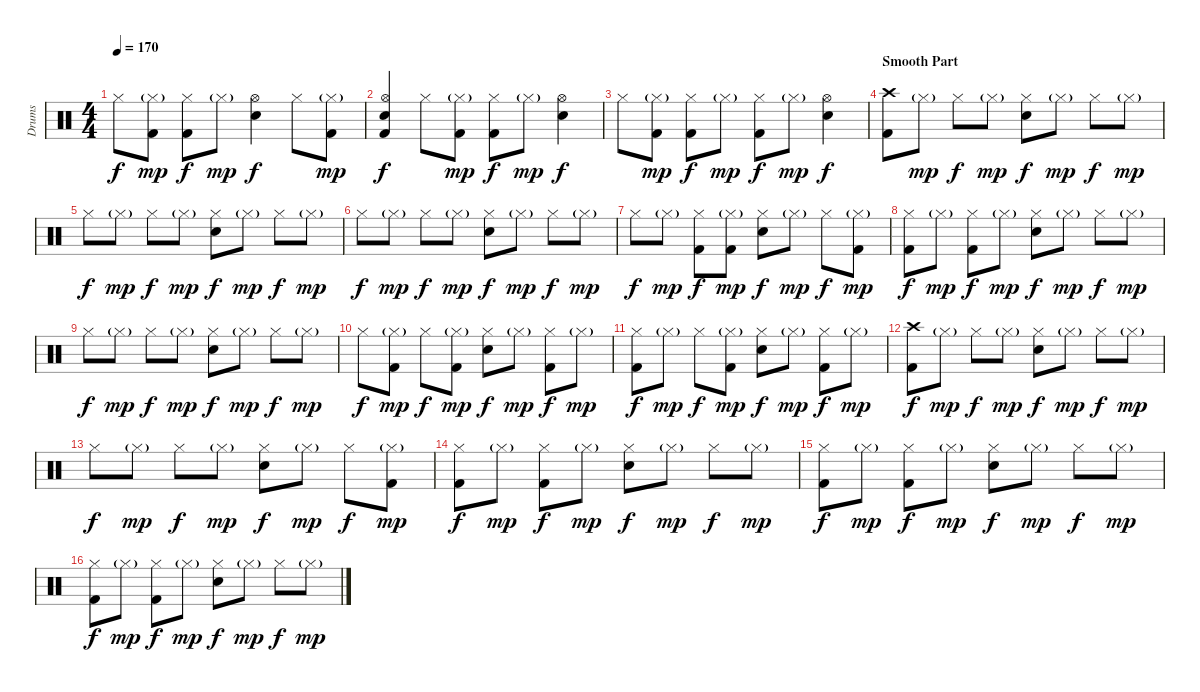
\track ("Drums" "Drums") {instrument percussion}
\staff {score}
\articulation defaults
\ts (4 4)
\tempo 170
\clef neutral
\ks c "Hi-Hat (closed)".8{dy f}
("Hi-Hat (closed)"{g} "Kick (hit) 2").8{dy mp} ("Hi-Hat (closed)" "Kick (hit) 2").8{dy f} "Hi-Hat (closed)"{g}.8{dy mp} ("Hi-Hat (open)" "Snare (hit) 2").4{dy f} "Hi-Hat (closed)".8 ("Hi-Hat (closed)"{g} "Kick (hit) 2").8{dy mp} |
("Hi-Hat (open)" "Snare (hit) 2" "Kick (hit) 2").4{dy f} "Hi-Hat (closed)".8 ("Hi-Hat (closed)"{g} "Kick (hit) 2").8{dy mp} ("Hi-Hat (closed)" "Kick (hit) 2").8{dy f} "Hi-Hat (closed)"{g}.8{dy mp} ("Hi-Hat (open)" "Snare (hit) 2").4{dy f} |
"Hi-Hat (closed)".8 ("Hi-Hat (closed)"{g} "Kick (hit) 2").8{dy mp} ("Hi-Hat (closed)" "Kick (hit) 2").8{dy f} "Hi-Hat (closed)"{g}.8{dy mp} ("Hi-Hat (closed)" "Kick (hit) 2").8{dy f} "Hi-Hat (closed)"{g}.8{dy mp} ("Hi-Hat (open)" "Snare (hit) 2").4{dy f} |
\section ("" "Smooth Part")
("Crash high (hit)" "Kick (hit) 2").8 "Hi-Hat (closed)"{g}.8{dy mp} "Hi-Hat (closed)".8{dy f} "Hi-Hat (closed)"{g}.8{dy mp} ("Hi-Hat (closed)" "Snare (hit) 2").8{dy f} "Hi-Hat (closed)"{g}.8{dy mp} "Hi-Hat (closed)".8{dy f} "Hi-Hat (closed)"{g}.8{dy mp} |
"Hi-Hat (closed)".8{dy f} "Hi-Hat (closed)"{g}.8{dy mp} "Hi-Hat (closed)".8{dy f} "Hi-Hat (closed)"{g}.8{dy mp} ("Hi-Hat (closed)" "Snare (hit) 2").8{dy f} "Hi-Hat (closed)"{g}.8{dy mp} "Hi-Hat (closed)".8{dy f} "Hi-Hat (closed)"{g}.8{dy mp} |
"Hi-Hat (closed)".8{dy f} "Hi-Hat (closed)"{g}.8{dy mp} "Hi-Hat (closed)".8{dy f} "Hi-Hat (closed)"{g}.8{dy mp} ("Hi-Hat (closed)" "Snare (hit) 2").8{dy f} "Hi-Hat (closed)"{g}.8{dy mp} "Hi-Hat (closed)".8{dy f} "Hi-Hat (closed)"{g}.8{dy mp} |
"Hi-Hat (closed)".8{dy f} "Hi-Hat (closed)"{g}.8{dy mp} ("Hi-Hat (closed)" "Kick (hit) 2").8{dy f} ("Hi-Hat (closed)"{g} "Kick (hit) 2").8{dy mp} ("Hi-Hat (closed)" "Snare (hit) 2").8{dy f} "Hi-Hat (closed)"{g}.8{dy mp} "Hi-Hat (closed)".8{dy f} ("Hi-Hat (closed)"{g} "Kick (hit) 2").8{dy mp} |
("Hi-Hat (closed)" "Kick (hit) 2").8{dy f} "Hi-Hat (closed)"{g}.8{dy mp} ("Hi-Hat (closed)" "Kick (hit) 2").8{dy f} "Hi-Hat (closed)"{g}.8{dy mp} ("Hi-Hat (closed)" "Snare (hit) 2").8{dy f} "Hi-Hat (closed)"{g}.8{dy mp} "Hi-Hat (closed)".8{dy f} "Hi-Hat (closed)"{g}.8{dy mp} |
"Hi-Hat (closed)".8{dy f} "Hi-Hat (closed)"{g}.8{dy mp} "Hi-Hat (closed)".8{dy f} "Hi-Hat (closed)"{g}.8{dy mp} ("Hi-Hat (closed)" "Snare (hit) 2").8{dy f} "Hi-Hat (closed)"{g}.8{dy mp} "Hi-Hat (closed)".8{dy f} "Hi-Hat (closed)"{g}.8{dy mp} |
"Hi-Hat (closed)".8{dy f} ("Hi-Hat (closed)"{g} "Kick (hit) 2").8{dy mp} "Hi-Hat (closed)".8{dy f} ("Hi-Hat (closed)"{g} "Kick (hit) 2").8{dy mp} ("Hi-Hat (closed)" "Snare (hit) 2").8{dy f} "Hi-Hat (closed)"{g}.8{dy mp} ("Hi-Hat (closed)" "Kick (hit) 2").8{dy f} "Hi-Hat (closed)"{g}.8{dy mp} |
("Hi-Hat (closed)" "Kick (hit) 2").8{dy f} "Hi-Hat (closed)"{g}.8{dy mp} "Hi-Hat (closed)".8{dy f} ("Hi-Hat (closed)"{g} "Kick (hit) 2").8{dy mp} ("Hi-Hat (closed)" "Snare (hit) 2").8{dy f} "Hi-Hat (closed)"{g}.8{dy mp} ("Hi-Hat (closed)" "Kick (hit) 2").8{dy f} "Hi-Hat (closed)"{g}.8{dy mp} |
("Crash high (hit)" "Kick (hit) 2").8{dy f} "Hi-Hat (closed)"{g}.8{dy mp} "Hi-Hat (closed)".8{dy f} "Hi-Hat (closed)"{g}.8{dy mp} ("Hi-Hat (closed)" "Snare (hit) 2").8{dy f} "Hi-Hat (closed)"{g}.8{dy mp} "Hi-Hat (closed)".8{dy f} "Hi-Hat (closed)"{g}.8{dy mp} |
"Hi-Hat (closed)".8{dy f} "Hi-Hat (closed)"{g}.8{dy mp} "Hi-Hat (closed)".8{dy f} "Hi-Hat (closed)"{g}.8{dy mp} ("Hi-Hat (closed)" "Snare (hit) 2").8{dy f} "Hi-Hat (closed)"{g}.8{dy mp} "Hi-Hat (closed)".8{dy f} ("Hi-Hat (closed)"{g} "Kick (hit) 2").8{dy mp} |
("Hi-Hat (closed)" "Kick (hit) 2").8{dy f} "Hi-Hat (closed)"{g}.8{dy mp} ("Hi-Hat (closed)" "Kick (hit) 2").8{dy f} "Hi-Hat (closed)"{g}.8{dy mp} ("Hi-Hat (closed)" "Snare (hit) 2").8{dy f} "Hi-Hat (closed)"{g}.8{dy mp} "Hi-Hat (closed)".8{dy f} "Hi-Hat (closed)"{g}.8{dy mp} |
("Hi-Hat (closed)" "Kick (hit) 2").8{dy f} "Hi-Hat (closed)"{g}.8{dy mp} ("Hi-Hat (closed)" "Kick (hit) 2").8{dy f} "Hi-Hat (closed)"{g}.8{dy mp} ("Hi-Hat (closed)" "Snare (hit) 2").8{dy f} "Hi-Hat (closed)"{g}.8{dy mp} "Hi-Hat (closed)".8{dy f} "Hi-Hat (closed)"{g}.8{dy mp} |
("Hi-Hat (closed)" "Kick (hit) 2").8{dy f} "Hi-Hat (closed)"{g}.8{dy mp} ("Hi-Hat (closed)" "Kick (hit) 2").8{dy f} "Hi-Hat (closed)"{g}.8{dy mp} ("Hi-Hat (closed)" "Snare (hit) 2").8{dy f} "Hi-Hat (closed)"{g}.8{dy mp} "Hi-Hat (closed)".8{dy f} "Hi-Hat (closed)"{g}.8{dy mp}
